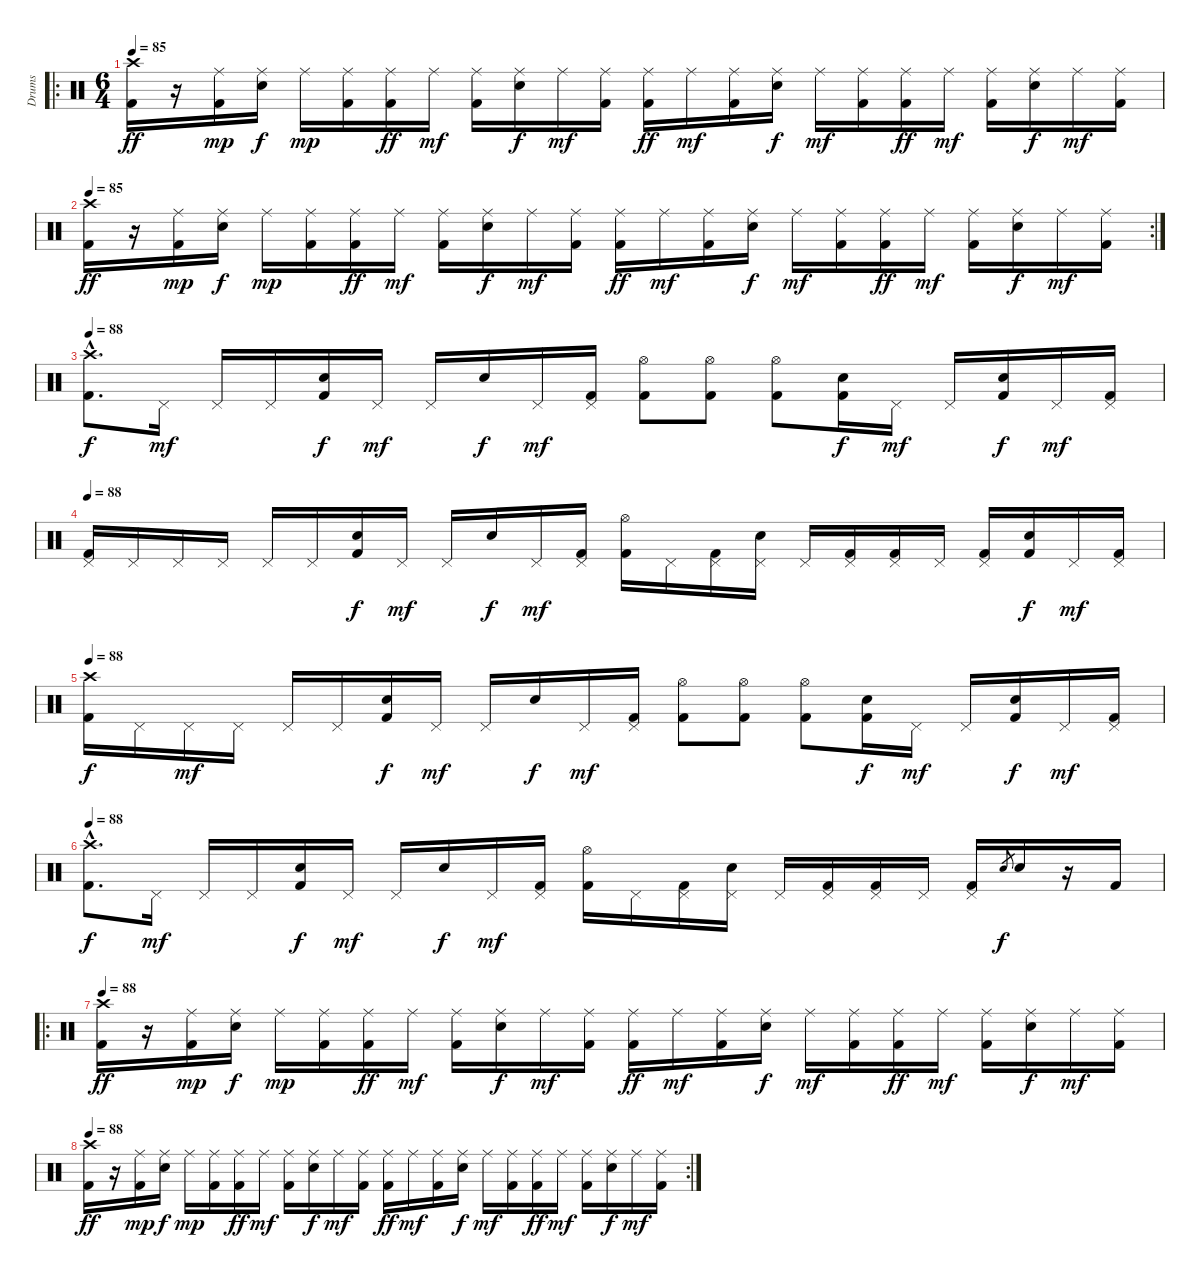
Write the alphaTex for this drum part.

\track ("Drums" "Drums") {instrument percussion}
\staff {score}
\articulation defaults
\ro
\ts (6 4)
\tempo 85
\clef neutral
\ks c
("Crash high (hit)" "Kick (hit) 2").16{dy ff} r.16 ("Ride (middle)" "Kick (hit) 2").16{dy mp} ("Ride (middle)" "Electric Snare (hit)").16{dy f} "Ride (middle)".16{dy mp} ("Ride (middle)" "Kick (hit) 2").16 ("Ride (middle)" "Kick (hit) 2").16{dy ff} "Ride (middle)".16{dy mf} ("Ride (middle)" "Kick (hit) 2").16 ("Ride (middle)" "Electric Snare (hit)").16{dy f} "Ride (middle)".16{dy mf} ("Ride (middle)" "Kick (hit) 2").16 ("Ride (middle)" "Kick (hit) 2").16{dy ff} "Ride (middle)".16{dy mf} ("Ride (middle)" "Kick (hit) 2").16 ("Ride (middle)" "Electric Snare (hit)").16{dy f} "Ride (middle)".16{dy mf} ("Ride (middle)" "Kick (hit) 2").16 ("Ride (middle)" "Kick (hit) 2").16{dy ff} "Ride (middle)".16{dy mf} ("Ride (middle)" "Kick (hit) 2").16 ("Ride (middle)" "Electric Snare (hit)").16{dy f} "Ride (middle)".16{dy mf} ("Ride (middle)" "Kick (hit) 2").16 |
\rc 2
\tempo 85
("Crash high (hit)" "Kick (hit) 2").16{dy ff} r.16 ("Ride (middle)" "Kick (hit) 2").16{dy mp} ("Ride (middle)" "Electric Snare (hit)").16{dy f} "Ride (middle)".16{dy mp} ("Ride (middle)" "Kick (hit) 2").16 ("Ride (middle)" "Kick (hit) 2").16{dy ff} "Ride (middle)".16{dy mf} ("Ride (middle)" "Kick (hit) 2").16 ("Ride (middle)" "Electric Snare (hit)").16{dy f} "Ride (middle)".16{dy mf} ("Ride (middle)" "Kick (hit) 2").16 ("Ride (middle)" "Kick (hit) 2").16{dy ff} "Ride (middle)".16{dy mf} ("Ride (middle)" "Kick (hit) 2").16 ("Ride (middle)" "Electric Snare (hit)").16{dy f} "Ride (middle)".16{dy mf} ("Ride (middle)" "Kick (hit) 2").16 ("Ride (middle)" "Kick (hit) 2").16{dy ff} "Ride (middle)".16{dy mf} ("Ride (middle)" "Kick (hit) 2").16 ("Ride (middle)" "Electric Snare (hit)").16{dy f} "Ride (middle)".16{dy mf} ("Ride (middle)" "Kick (hit) 2").16 |
\tempo 88
("Crash high (hit)"{hac} "Kick (hit) 2"{hac}).8{d dy f} "Pedal Hi-Hat (hit)".16{dy mf} "Pedal Hi-Hat (hit)".16 "Pedal Hi-Hat (hit)".16 ("Electric Snare (hit)" "Kick (hit) 2").16{dy f} "Pedal Hi-Hat (hit)".16{dy mf} "Pedal Hi-Hat (hit)".16 "Electric Snare (hit)".16{dy f} "Pedal Hi-Hat (hit)".16{dy mf} ("Pedal Hi-Hat (hit)" "Kick (hit) 2").16 ("Hi-Hat (open)" "Kick (hit) 2").8 ("Hi-Hat (open)" "Kick (hit) 2").8 ("Hi-Hat (open)" "Kick (hit) 2").8 ("Electric Snare (hit)" "Kick (hit) 2").16{dy f} "Pedal Hi-Hat (hit)".16{dy mf} "Pedal Hi-Hat (hit)".16 ("Electric Snare (hit)" "Kick (hit) 2").16{dy f} "Pedal Hi-Hat (hit)".16{dy mf} ("Pedal Hi-Hat (hit)" "Kick (hit) 2").16 |
\tempo 88
("Pedal Hi-Hat (hit)" "Kick (hit) 2").16 "Pedal Hi-Hat (hit)".16 "Pedal Hi-Hat (hit)".16 "Pedal Hi-Hat (hit)".16 "Pedal Hi-Hat (hit)".16 "Pedal Hi-Hat (hit)".16 ("Electric Snare (hit)" "Kick (hit) 2").16{dy f} "Pedal Hi-Hat (hit)".16{dy mf} "Pedal Hi-Hat (hit)".16 "Electric Snare (hit)".16{dy f} "Pedal Hi-Hat (hit)".16{dy mf} ("Pedal Hi-Hat (hit)" "Kick (hit) 2").16 ("Hi-Hat (open)" "Kick (hit) 2").16 "Pedal Hi-Hat (hit)".16 ("Pedal Hi-Hat (hit)" "Kick (hit) 2").16 ("Pedal Hi-Hat (hit)" "Electric Snare (hit)").16 "Pedal Hi-Hat (hit)".16 ("Pedal Hi-Hat (hit)" "Kick (hit) 2").16 ("Pedal Hi-Hat (hit)" "Kick (hit) 2").16 "Pedal Hi-Hat (hit)".16 ("Pedal Hi-Hat (hit)" "Kick (hit) 2").16 ("Electric Snare (hit)" "Kick (hit) 2").16{dy f} "Pedal Hi-Hat (hit)".16{dy mf} ("Pedal Hi-Hat (hit)" "Kick (hit) 2").16 |
\tempo 88
("Crash high (hit)" "Kick (hit) 2").16{dy f} "Pedal Hi-Hat (hit)".16 "Pedal Hi-Hat (hit)".16{dy mf} "Pedal Hi-Hat (hit)".16 "Pedal Hi-Hat (hit)".16 "Pedal Hi-Hat (hit)".16 ("Electric Snare (hit)" "Kick (hit) 2").16{dy f} "Pedal Hi-Hat (hit)".16{dy mf} "Pedal Hi-Hat (hit)".16 "Electric Snare (hit)".16{dy f} "Pedal Hi-Hat (hit)".16{dy mf} ("Pedal Hi-Hat (hit)" "Kick (hit) 2").16 ("Hi-Hat (open)" "Kick (hit) 2").8 ("Hi-Hat (open)" "Kick (hit) 2").8 ("Hi-Hat (open)" "Kick (hit) 2").8 ("Electric Snare (hit)" "Kick (hit) 2").16{dy f} "Pedal Hi-Hat (hit)".16{dy mf} "Pedal Hi-Hat (hit)".16 ("Electric Snare (hit)" "Kick (hit) 2").16{dy f} "Pedal Hi-Hat (hit)".16{dy mf} ("Pedal Hi-Hat (hit)" "Kick (hit) 2").16 |
\tempo 88
("Crash high (hit)"{hac} "Kick (hit) 2"{hac}).8{d dy f} "Pedal Hi-Hat (hit)".16{dy mf} "Pedal Hi-Hat (hit)".16 "Pedal Hi-Hat (hit)".16 ("Electric Snare (hit)" "Kick (hit) 2").16{dy f} "Pedal Hi-Hat (hit)".16{dy mf} "Pedal Hi-Hat (hit)".16 "Electric Snare (hit)".16{dy f} "Pedal Hi-Hat (hit)".16{dy mf} ("Pedal Hi-Hat (hit)" "Kick (hit) 2").16 ("Hi-Hat (open)" "Kick (hit) 2").16 "Pedal Hi-Hat (hit)".16 ("Pedal Hi-Hat (hit)" "Kick (hit) 2").16 ("Pedal Hi-Hat (hit)" "Electric Snare (hit)").16 "Pedal Hi-Hat (hit)".16 ("Pedal Hi-Hat (hit)" "Kick (hit) 2").16 ("Pedal Hi-Hat (hit)" "Kick (hit) 2").16 "Pedal Hi-Hat (hit)".16 ("Pedal Hi-Hat (hit)" "Kick (hit) 2").16 "Electric Snare (hit)".8{gr dy f} "Electric Snare (hit)".16 r.16 "Kick (hit) 2".16 |
\ro
\tempo 88
("Crash high (hit)" "Kick (hit) 2").16{dy ff} r.16 ("Ride (middle)" "Kick (hit) 2").16{dy mp} ("Ride (middle)" "Electric Snare (hit)").16{dy f} "Ride (middle)".16{dy mp} ("Ride (middle)" "Kick (hit) 2").16 ("Ride (middle)" "Kick (hit) 2").16{dy ff} "Ride (middle)".16{dy mf} ("Ride (middle)" "Kick (hit) 2").16 ("Ride (middle)" "Electric Snare (hit)").16{dy f} "Ride (middle)".16{dy mf} ("Ride (middle)" "Kick (hit) 2").16 ("Ride (middle)" "Kick (hit) 2").16{dy ff} "Ride (middle)".16{dy mf} ("Ride (middle)" "Kick (hit) 2").16 ("Ride (middle)" "Electric Snare (hit)").16{dy f} "Ride (middle)".16{dy mf} ("Ride (middle)" "Kick (hit) 2").16 ("Ride (middle)" "Kick (hit) 2").16{dy ff} "Ride (middle)".16{dy mf} ("Ride (middle)" "Kick (hit) 2").16 ("Ride (middle)" "Electric Snare (hit)").16{dy f} "Ride (middle)".16{dy mf} ("Ride (middle)" "Kick (hit) 2").16 |
\rc 2
\tempo 88
("Crash high (hit)" "Kick (hit) 2").16{dy ff} r.16 ("Ride (middle)" "Kick (hit) 2").16{dy mp} ("Ride (middle)" "Electric Snare (hit)").16{dy f} "Ride (middle)".16{dy mp} ("Ride (middle)" "Kick (hit) 2").16 ("Ride (middle)" "Kick (hit) 2").16{dy ff} "Ride (middle)".16{dy mf} ("Ride (middle)" "Kick (hit) 2").16 ("Ride (middle)" "Electric Snare (hit)").16{dy f} "Ride (middle)".16{dy mf} ("Ride (middle)" "Kick (hit) 2").16 ("Ride (middle)" "Kick (hit) 2").16{dy ff} "Ride (middle)".16{dy mf} ("Ride (middle)" "Kick (hit) 2").16 ("Ride (middle)" "Electric Snare (hit)").16{dy f} "Ride (middle)".16{dy mf} ("Ride (middle)" "Kick (hit) 2").16 ("Ride (middle)" "Kick (hit) 2").16{dy ff} "Ride (middle)".16{dy mf} ("Ride (middle)" "Kick (hit) 2").16 ("Ride (middle)" "Electric Snare (hit)").16{dy f} "Ride (middle)".16{dy mf} ("Ride (middle)" "Kick (hit) 2").16
